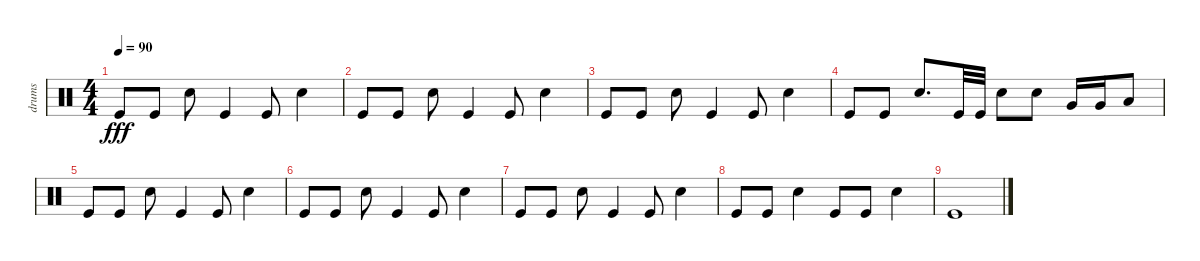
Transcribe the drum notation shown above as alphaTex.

\track ("drums" "drums") {instrument percussion}
\staff {score}
\articulation defaults
\ts (4 4)
\tempo 90
\clef neutral
\ks c "Kick (hit)".8{dy fff} "Kick (hit)".8 "Electric Snare (hit)".8 "Kick (hit)".4 "Kick (hit)".8 "Electric Snare (hit)".4
|
"Kick (hit)".8 "Kick (hit)".8 "Electric Snare (hit)".8 "Kick (hit)".4 "Kick (hit)".8 "Electric Snare (hit)".4 |
"Kick (hit)".8 "Kick (hit)".8 "Electric Snare (hit)".8 "Kick (hit)".4 "Kick (hit)".8 "Electric Snare (hit)".4 |
"Kick (hit)".8 "Kick (hit)".8 "Electric Snare (hit)".8{d} "Kick (hit)".32 "Kick (hit)".32 "Electric Snare (hit)".8 "Electric Snare (hit)".8 "Very Low Tom (hit)".16 "Very Low Tom (hit)".16 "Low Floor Tom (hit)".8 |
"Kick (hit)".8 "Kick (hit)".8 "Electric Snare (hit)".8 "Kick (hit)".4 "Kick (hit)".8 "Electric Snare (hit)".4 |
"Kick (hit)".8 "Kick (hit)".8 "Electric Snare (hit)".8 "Kick (hit)".4 "Kick (hit)".8 "Electric Snare (hit)".4 |
"Kick (hit)".8 "Kick (hit)".8 "Electric Snare (hit)".8 "Kick (hit)".4 "Kick (hit)".8 "Electric Snare (hit)".4 |
"Kick (hit)".8 "Kick (hit)".8 "Electric Snare (hit)".4 "Kick (hit)".8 "Kick (hit)".8 "Electric Snare (hit)".4 |
"Kick (hit)".1
